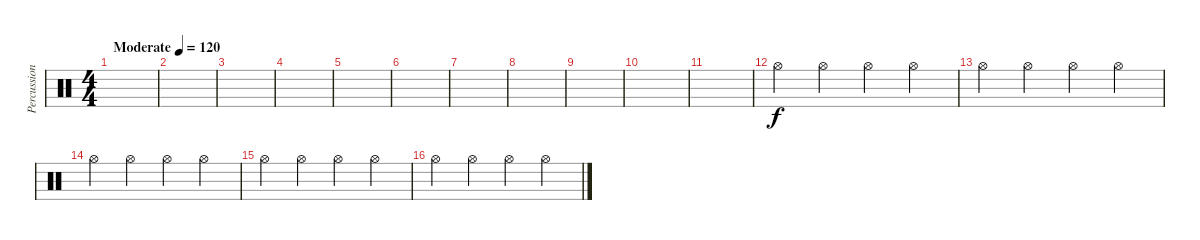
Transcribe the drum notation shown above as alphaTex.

\track ("Percussioni" "Percussion") {instrument percussion}
\staff {score}
\articulation defaults
\ts (4 4)
\tempo (120 "Moderate")
\clef neutral
\ks c
|
|
|
|
|
|
|
|
|
|
|
"Hi-Hat (open)".4 "Hi-Hat (open)".4 "Hi-Hat (open)".4 "Hi-Hat (open)".4 |
"Hi-Hat (open)".4 "Hi-Hat (open)".4 "Hi-Hat (open)".4 "Hi-Hat (open)".4 |
"Hi-Hat (open)".4 "Hi-Hat (open)".4 "Hi-Hat (open)".4 "Hi-Hat (open)".4 |
"Hi-Hat (open)".4 "Hi-Hat (open)".4 "Hi-Hat (open)".4 "Hi-Hat (open)".4 |
"Hi-Hat (open)".4 "Hi-Hat (open)".4 "Hi-Hat (open)".4 "Hi-Hat (open)".4
